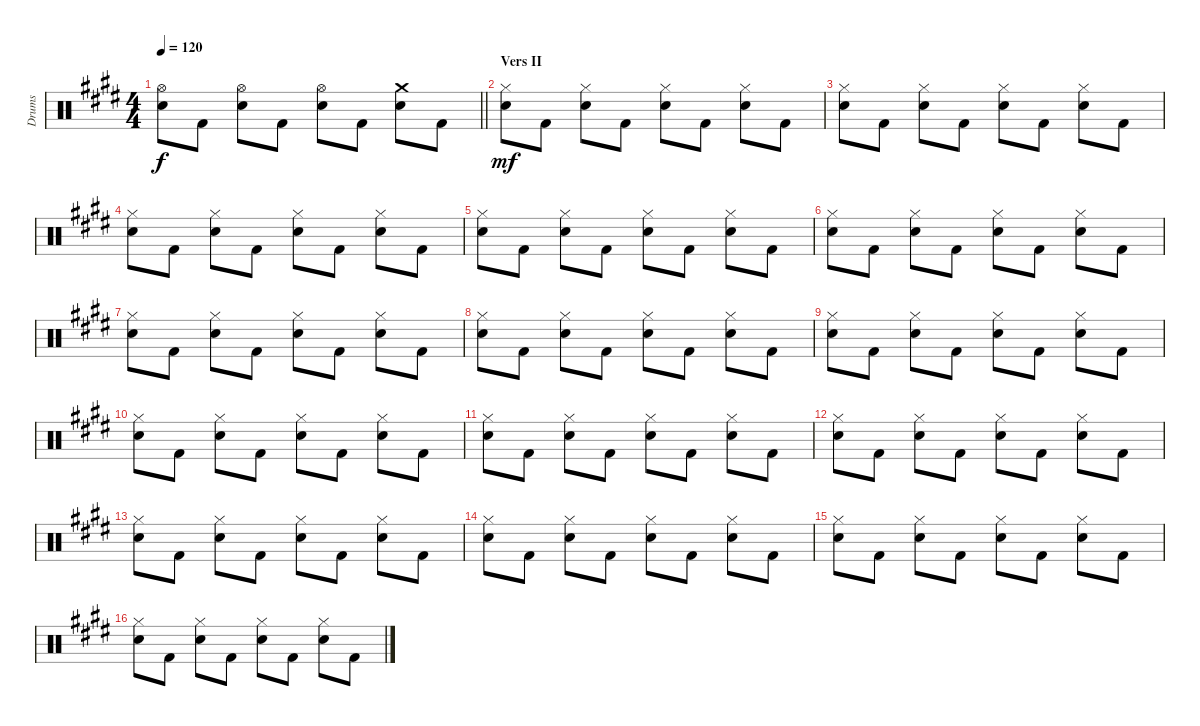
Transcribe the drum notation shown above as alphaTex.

\track ("Drums" "Drums") {instrument percussion}
\staff {score}
\articulation defaults
\ts (4 4)
\tempo 120
\clef neutral
\barLineRight lightlight
\ks e
("Hi-Hat (open)" "Snare (hit) 2").8{dy f} "Kick (hit) 2".8 ("Hi-Hat (open)" "Snare (hit) 2").8 "Kick (hit) 2".8 ("Hi-Hat (open)" "Snare (hit) 2").8 "Kick (hit) 2".8 ("Crash medium (hit)" "Snare (hit) 2").8 "Kick (hit) 2".8 |
\section ("" "Vers II")
("Hi-Hat (closed)" "Snare (hit) 2").8{dy mf} "Kick (hit) 2".8 ("Hi-Hat (closed)" "Snare (hit) 2").8 "Kick (hit) 2".8 ("Hi-Hat (closed)" "Snare (hit) 2").8 "Kick (hit) 2".8 ("Hi-Hat (closed)" "Snare (hit) 2").8 "Kick (hit) 2".8 |
("Hi-Hat (closed)" "Snare (hit) 2").8 "Kick (hit) 2".8 ("Hi-Hat (closed)" "Snare (hit) 2").8 "Kick (hit) 2".8 ("Hi-Hat (closed)" "Snare (hit) 2").8 "Kick (hit) 2".8 ("Hi-Hat (closed)" "Snare (hit) 2").8 "Kick (hit) 2".8 |
("Hi-Hat (closed)" "Snare (hit) 2").8 "Kick (hit) 2".8 ("Hi-Hat (closed)" "Snare (hit) 2").8 "Kick (hit) 2".8 ("Hi-Hat (closed)" "Snare (hit) 2").8 "Kick (hit) 2".8 ("Hi-Hat (closed)" "Snare (hit) 2").8 "Kick (hit) 2".8 |
("Hi-Hat (closed)" "Snare (hit) 2").8 "Kick (hit) 2".8 ("Hi-Hat (closed)" "Snare (hit) 2").8 "Kick (hit) 2".8 ("Hi-Hat (closed)" "Snare (hit) 2").8 "Kick (hit) 2".8 ("Hi-Hat (closed)" "Snare (hit) 2").8 "Kick (hit) 2".8 |
("Hi-Hat (closed)" "Snare (hit) 2").8 "Kick (hit) 2".8 ("Hi-Hat (closed)" "Snare (hit) 2").8 "Kick (hit) 2".8 ("Hi-Hat (closed)" "Snare (hit) 2").8 "Kick (hit) 2".8 ("Hi-Hat (closed)" "Snare (hit) 2").8 "Kick (hit) 2".8 |
("Hi-Hat (closed)" "Snare (hit) 2").8 "Kick (hit) 2".8 ("Hi-Hat (closed)" "Snare (hit) 2").8 "Kick (hit) 2".8 ("Hi-Hat (closed)" "Snare (hit) 2").8 "Kick (hit) 2".8 ("Hi-Hat (closed)" "Snare (hit) 2").8 "Kick (hit) 2".8 |
("Hi-Hat (closed)" "Snare (hit) 2").8 "Kick (hit) 2".8 ("Hi-Hat (closed)" "Snare (hit) 2").8 "Kick (hit) 2".8 ("Hi-Hat (closed)" "Snare (hit) 2").8 "Kick (hit) 2".8 ("Hi-Hat (closed)" "Snare (hit) 2").8 "Kick (hit) 2".8 |
("Hi-Hat (closed)" "Snare (hit) 2").8 "Kick (hit) 2".8 ("Hi-Hat (closed)" "Snare (hit) 2").8 "Kick (hit) 2".8 ("Hi-Hat (closed)" "Snare (hit) 2").8 "Kick (hit) 2".8 ("Hi-Hat (closed)" "Snare (hit) 2").8 "Kick (hit) 2".8 |
("Hi-Hat (closed)" "Snare (hit) 2").8 "Kick (hit) 2".8 ("Hi-Hat (closed)" "Snare (hit) 2").8 "Kick (hit) 2".8 ("Hi-Hat (closed)" "Snare (hit) 2").8 "Kick (hit) 2".8 ("Hi-Hat (closed)" "Snare (hit) 2").8 "Kick (hit) 2".8 |
("Hi-Hat (closed)" "Snare (hit) 2").8 "Kick (hit) 2".8 ("Hi-Hat (closed)" "Snare (hit) 2").8 "Kick (hit) 2".8 ("Hi-Hat (closed)" "Snare (hit) 2").8 "Kick (hit) 2".8 ("Hi-Hat (closed)" "Snare (hit) 2").8 "Kick (hit) 2".8 |
("Hi-Hat (closed)" "Snare (hit) 2").8 "Kick (hit) 2".8 ("Hi-Hat (closed)" "Snare (hit) 2").8 "Kick (hit) 2".8 ("Hi-Hat (closed)" "Snare (hit) 2").8 "Kick (hit) 2".8 ("Hi-Hat (closed)" "Snare (hit) 2").8 "Kick (hit) 2".8 |
("Hi-Hat (closed)" "Snare (hit) 2").8 "Kick (hit) 2".8 ("Hi-Hat (closed)" "Snare (hit) 2").8 "Kick (hit) 2".8 ("Hi-Hat (closed)" "Snare (hit) 2").8 "Kick (hit) 2".8 ("Hi-Hat (closed)" "Snare (hit) 2").8 "Kick (hit) 2".8 |
("Hi-Hat (closed)" "Snare (hit) 2").8 "Kick (hit) 2".8 ("Hi-Hat (closed)" "Snare (hit) 2").8 "Kick (hit) 2".8 ("Hi-Hat (closed)" "Snare (hit) 2").8 "Kick (hit) 2".8 ("Hi-Hat (closed)" "Snare (hit) 2").8 "Kick (hit) 2".8 |
("Hi-Hat (closed)" "Snare (hit) 2").8 "Kick (hit) 2".8 ("Hi-Hat (closed)" "Snare (hit) 2").8 "Kick (hit) 2".8 ("Hi-Hat (closed)" "Snare (hit) 2").8 "Kick (hit) 2".8 ("Hi-Hat (closed)" "Snare (hit) 2").8 "Kick (hit) 2".8 |
("Hi-Hat (closed)" "Snare (hit) 2").8 "Kick (hit) 2".8 ("Hi-Hat (closed)" "Snare (hit) 2").8 "Kick (hit) 2".8 ("Hi-Hat (closed)" "Snare (hit) 2").8 "Kick (hit) 2".8 ("Hi-Hat (closed)" "Snare (hit) 2").8 "Kick (hit) 2".8
